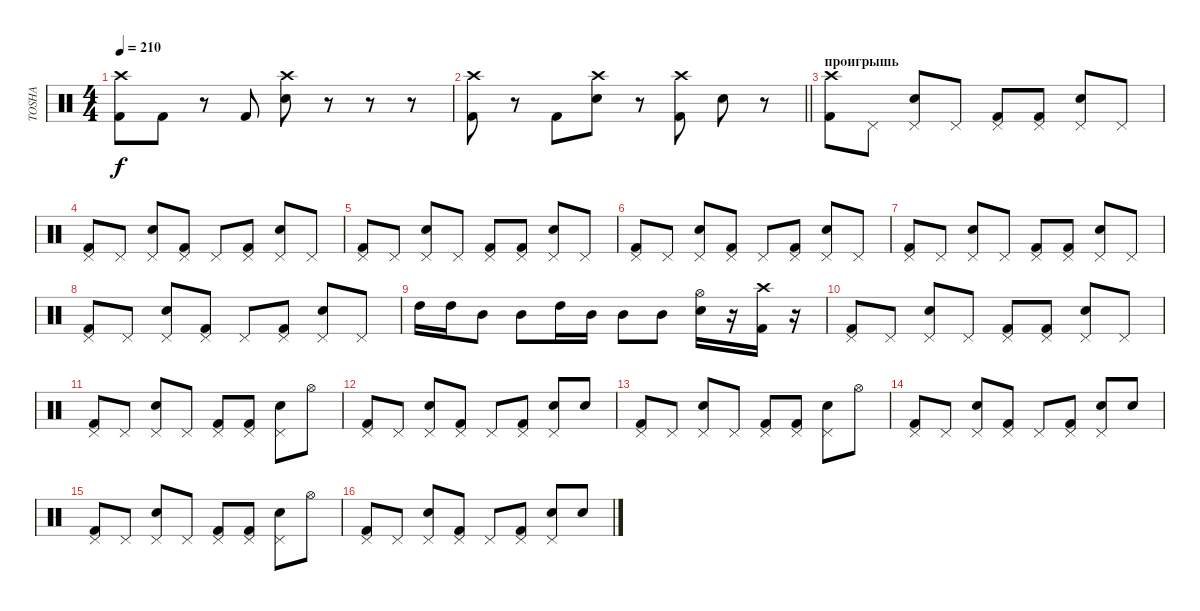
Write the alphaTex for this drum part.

\track ("TOSHA" "TOSHA") {instrument percussion}
\staff {score}
\articulation defaults
\ts (4 4)
\tempo 210
\clef neutral
\ks c
("Kick (hit) 2" "Crash high (hit)").8{dy f} "Kick (hit) 2".8 r.8 "Kick (hit) 2".8 ("Electric Snare (hit)" "Crash high (hit)").8 r.8 r.8 r.8 |
\barLineRight lightlight
("Kick (hit) 2" "Crash high (hit)").8 r.8 "Kick (hit) 2".8 ("Electric Snare (hit)" "Crash high (hit)").8 r.8 ("Kick (hit) 2" "Crash high (hit)").8 "Electric Snare (hit)".8 r.8 |
\section ("" "проигрышь")
("Kick (hit) 2" "Crash high (hit)").8 "Pedal Hi-Hat (hit)".8 ("Electric Snare (hit)" "Pedal Hi-Hat (hit)").8 "Pedal Hi-Hat (hit)".8 ("Kick (hit) 2" "Pedal Hi-Hat (hit)").8 ("Kick (hit) 2" "Pedal Hi-Hat (hit)").8 ("Electric Snare (hit)" "Pedal Hi-Hat (hit)").8 "Pedal Hi-Hat (hit)".8 |
("Kick (hit) 2" "Pedal Hi-Hat (hit)").8 "Pedal Hi-Hat (hit)".8 ("Electric Snare (hit)" "Pedal Hi-Hat (hit)").8 ("Kick (hit) 2" "Pedal Hi-Hat (hit)").8 "Pedal Hi-Hat (hit)".8 ("Kick (hit) 2" "Pedal Hi-Hat (hit)").8 ("Electric Snare (hit)" "Pedal Hi-Hat (hit)").8 "Pedal Hi-Hat (hit)".8 |
("Kick (hit) 2" "Pedal Hi-Hat (hit)").8 "Pedal Hi-Hat (hit)".8 ("Electric Snare (hit)" "Pedal Hi-Hat (hit)").8 "Pedal Hi-Hat (hit)".8 ("Kick (hit) 2" "Pedal Hi-Hat (hit)").8 ("Kick (hit) 2" "Pedal Hi-Hat (hit)").8 ("Electric Snare (hit)" "Pedal Hi-Hat (hit)").8 "Pedal Hi-Hat (hit)".8 |
("Kick (hit) 2" "Pedal Hi-Hat (hit)").8 "Pedal Hi-Hat (hit)".8 ("Electric Snare (hit)" "Pedal Hi-Hat (hit)").8 ("Kick (hit) 2" "Pedal Hi-Hat (hit)").8 "Pedal Hi-Hat (hit)".8 ("Kick (hit) 2" "Pedal Hi-Hat (hit)").8 ("Electric Snare (hit)" "Pedal Hi-Hat (hit)").8 "Pedal Hi-Hat (hit)".8 |
("Kick (hit) 2" "Pedal Hi-Hat (hit)").8 "Pedal Hi-Hat (hit)".8 ("Electric Snare (hit)" "Pedal Hi-Hat (hit)").8 "Pedal Hi-Hat (hit)".8 ("Kick (hit) 2" "Pedal Hi-Hat (hit)").8 ("Kick (hit) 2" "Pedal Hi-Hat (hit)").8 ("Electric Snare (hit)" "Pedal Hi-Hat (hit)").8 "Pedal Hi-Hat (hit)".8 |
("Kick (hit) 2" "Pedal Hi-Hat (hit)").8 "Pedal Hi-Hat (hit)".8 ("Electric Snare (hit)" "Pedal Hi-Hat (hit)").8 ("Kick (hit) 2" "Pedal Hi-Hat (hit)").8 "Pedal Hi-Hat (hit)".8 ("Kick (hit) 2" "Pedal Hi-Hat (hit)").8 ("Electric Snare (hit)" "Pedal Hi-Hat (hit)").8 "Pedal Hi-Hat (hit)".8 |
"High Tom (hit)".16 "High Tom (hit)".16 "Mid Tom (hit)".8 "Mid Tom (hit)".8 "High Tom (hit)".16 "Mid Tom (hit)".16 "Mid Tom (hit)".8 "Mid Tom (hit)".8 ("Electric Snare (hit)" "Hi-Hat (open)").16 r.16 ("Kick (hit) 2" "Crash high (hit)").16 r.16 |
("Kick (hit) 2" "Pedal Hi-Hat (hit)").8 "Pedal Hi-Hat (hit)".8 ("Electric Snare (hit)" "Pedal Hi-Hat (hit)").8 "Pedal Hi-Hat (hit)".8 ("Kick (hit) 2" "Pedal Hi-Hat (hit)").8 ("Kick (hit) 2" "Pedal Hi-Hat (hit)").8 ("Electric Snare (hit)" "Pedal Hi-Hat (hit)").8 "Pedal Hi-Hat (hit)".8 |
("Kick (hit) 2" "Pedal Hi-Hat (hit)").8 "Pedal Hi-Hat (hit)".8 ("Electric Snare (hit)" "Pedal Hi-Hat (hit)").8 "Pedal Hi-Hat (hit)".8 ("Kick (hit) 2" "Pedal Hi-Hat (hit)").8 ("Kick (hit) 2" "Pedal Hi-Hat (hit)").8 ("Electric Snare (hit)" "Pedal Hi-Hat (hit)").8 "Hi-Hat (open)".8 |
("Kick (hit) 2" "Pedal Hi-Hat (hit)").8 "Pedal Hi-Hat (hit)".8 ("Electric Snare (hit)" "Pedal Hi-Hat (hit)").8 ("Kick (hit) 2" "Pedal Hi-Hat (hit)").8 "Pedal Hi-Hat (hit)".8 ("Kick (hit) 2" "Pedal Hi-Hat (hit)").8 ("Electric Snare (hit)" "Pedal Hi-Hat (hit)").8 "Electric Snare (hit)".8 |
("Kick (hit) 2" "Pedal Hi-Hat (hit)").8 "Pedal Hi-Hat (hit)".8 ("Electric Snare (hit)" "Pedal Hi-Hat (hit)").8 "Pedal Hi-Hat (hit)".8 ("Kick (hit) 2" "Pedal Hi-Hat (hit)").8 ("Kick (hit) 2" "Pedal Hi-Hat (hit)").8 ("Electric Snare (hit)" "Pedal Hi-Hat (hit)").8 "Hi-Hat (open)".8 |
("Kick (hit) 2" "Pedal Hi-Hat (hit)").8 "Pedal Hi-Hat (hit)".8 ("Electric Snare (hit)" "Pedal Hi-Hat (hit)").8 ("Kick (hit) 2" "Pedal Hi-Hat (hit)").8 "Pedal Hi-Hat (hit)".8 ("Kick (hit) 2" "Pedal Hi-Hat (hit)").8 ("Electric Snare (hit)" "Pedal Hi-Hat (hit)").8 "Electric Snare (hit)".8 |
("Kick (hit) 2" "Pedal Hi-Hat (hit)").8 "Pedal Hi-Hat (hit)".8 ("Electric Snare (hit)" "Pedal Hi-Hat (hit)").8 "Pedal Hi-Hat (hit)".8 ("Kick (hit) 2" "Pedal Hi-Hat (hit)").8 ("Kick (hit) 2" "Pedal Hi-Hat (hit)").8 ("Electric Snare (hit)" "Pedal Hi-Hat (hit)").8 "Hi-Hat (open)".8 |
("Kick (hit) 2" "Pedal Hi-Hat (hit)").8 "Pedal Hi-Hat (hit)".8 ("Electric Snare (hit)" "Pedal Hi-Hat (hit)").8 ("Kick (hit) 2" "Pedal Hi-Hat (hit)").8 "Pedal Hi-Hat (hit)".8 ("Kick (hit) 2" "Pedal Hi-Hat (hit)").8 ("Electric Snare (hit)" "Pedal Hi-Hat (hit)").8 "Electric Snare (hit)".8
